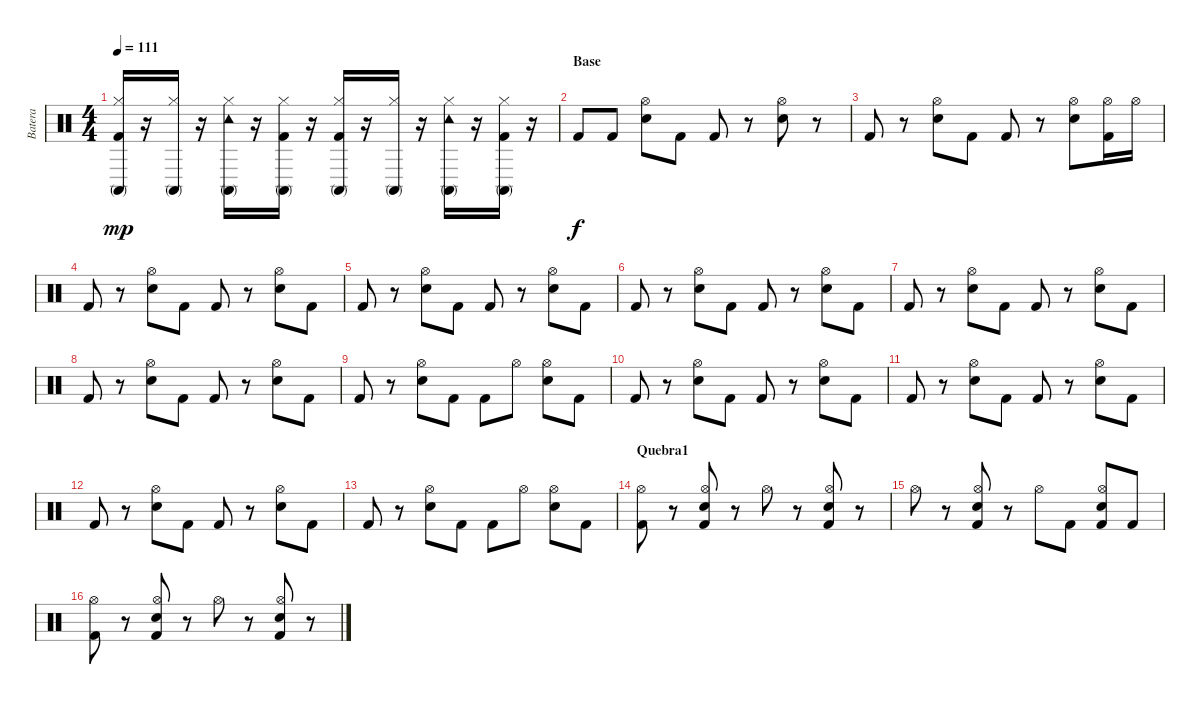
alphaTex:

\track ("Batera" "Batera") {instrument percussion}
\staff {score}
\articulation defaults
\ts (4 4)
\tempo 111
\clef neutral
\ks c
("Hi-Hat (closed)" "Conga high (mute)" "Kick (hit) 2").16{dy mp} r.16 ("Hi-Hat (closed)" "Conga high (mute)").16 r.16 ("Hi-Hat (closed)" "Conga high (mute)" "Tambourine (hit)").16 r.16 ("Hi-Hat (closed)" "Conga high (mute)" "Kick (hit) 2").16 r.16 ("Hi-Hat (closed)" "Conga high (mute)" "Kick (hit) 2").16 r.16 ("Hi-Hat (closed)" "Conga high (mute)").16 r.16 ("Hi-Hat (closed)" "Conga high (mute)" "Tambourine (hit)").16 r.16 ("Hi-Hat (closed)" "Conga high (mute)" "Kick (hit) 2").16 r.16 |
\section ("" "Base")
"Kick (hit) 2".8{dy f} "Kick (hit) 2".8 ("Hi-Hat (open)" "Snare (hit) 2").8 "Kick (hit) 2".8 "Kick (hit) 2".8 r.8 ("Hi-Hat (open)" "Snare (hit) 2").8 r.8 |
"Kick (hit) 2".8 r.8 ("Hi-Hat (open)" "Snare (hit) 2").8 "Kick (hit) 2".8 "Kick (hit) 2".8 r.8 ("Hi-Hat (open)" "Snare (hit) 2").8 ("Hi-Hat (open)" "Kick (hit) 2").16 "Hi-Hat (open)".16 |
"Kick (hit) 2".8 r.8 ("Hi-Hat (open)" "Snare (hit) 2").8 "Kick (hit) 2".8 "Kick (hit) 2".8 r.8 ("Hi-Hat (open)" "Snare (hit) 2").8 "Kick (hit) 2".8 |
"Kick (hit) 2".8 r.8 ("Hi-Hat (open)" "Snare (hit) 2").8 "Kick (hit) 2".8 "Kick (hit) 2".8 r.8 ("Hi-Hat (open)" "Snare (hit) 2").8 "Kick (hit) 2".8 |
"Kick (hit) 2".8 r.8 ("Hi-Hat (open)" "Snare (hit) 2").8 "Kick (hit) 2".8 "Kick (hit) 2".8 r.8 ("Hi-Hat (open)" "Snare (hit) 2").8 "Kick (hit) 2".8 |
"Kick (hit) 2".8 r.8 ("Hi-Hat (open)" "Snare (hit) 2").8 "Kick (hit) 2".8 "Kick (hit) 2".8 r.8 ("Hi-Hat (open)" "Snare (hit) 2").8 "Kick (hit) 2".8 |
"Kick (hit) 2".8 r.8 ("Hi-Hat (open)" "Snare (hit) 2").8 "Kick (hit) 2".8 "Kick (hit) 2".8 r.8 ("Hi-Hat (open)" "Snare (hit) 2").8 "Kick (hit) 2".8 |
"Kick (hit) 2".8 r.8 ("Hi-Hat (open)" "Snare (hit) 2").8 "Kick (hit) 2".8 "Kick (hit) 2".8 "Hi-Hat (open)".8 ("Hi-Hat (open)" "Snare (hit) 2").8 "Kick (hit) 2".8 |
"Kick (hit) 2".8 r.8 ("Hi-Hat (open)" "Snare (hit) 2").8 "Kick (hit) 2".8 "Kick (hit) 2".8 r.8 ("Hi-Hat (open)" "Snare (hit) 2").8 "Kick (hit) 2".8 |
"Kick (hit) 2".8 r.8 ("Hi-Hat (open)" "Snare (hit) 2").8 "Kick (hit) 2".8 "Kick (hit) 2".8 r.8 ("Hi-Hat (open)" "Snare (hit) 2").8 "Kick (hit) 2".8 |
"Kick (hit) 2".8 r.8 ("Hi-Hat (open)" "Snare (hit) 2").8 "Kick (hit) 2".8 "Kick (hit) 2".8 r.8 ("Hi-Hat (open)" "Snare (hit) 2").8 "Kick (hit) 2".8 |
"Kick (hit) 2".8 r.8 ("Hi-Hat (open)" "Snare (hit) 2").8 "Kick (hit) 2".8 "Kick (hit) 2".8 "Hi-Hat (open)".8 ("Hi-Hat (open)" "Snare (hit) 2").8 "Kick (hit) 2".8 |
\section ("" "Quebra1")
("Hi-Hat (open)" "Kick (hit) 2").8 r.8 ("Hi-Hat (open)" "Snare (hit) 2" "Kick (hit) 2").8 r.8 "Hi-Hat (open)".8 r.8 ("Hi-Hat (open)" "Snare (hit) 2" "Kick (hit) 2").8 r.8 |
"Hi-Hat (open)".8 r.8 ("Hi-Hat (open)" "Snare (hit) 2" "Kick (hit) 2").8 r.8 "Hi-Hat (open)".8 "Kick (hit) 2".8 ("Hi-Hat (open)" "Snare (hit) 2" "Kick (hit) 2").8 "Kick (hit) 2".8 |
("Hi-Hat (open)" "Kick (hit) 2").8 r.8 ("Hi-Hat (open)" "Snare (hit) 2" "Kick (hit) 2").8 r.8 "Hi-Hat (open)".8 r.8 ("Hi-Hat (open)" "Snare (hit) 2" "Kick (hit) 2").8 r.8
